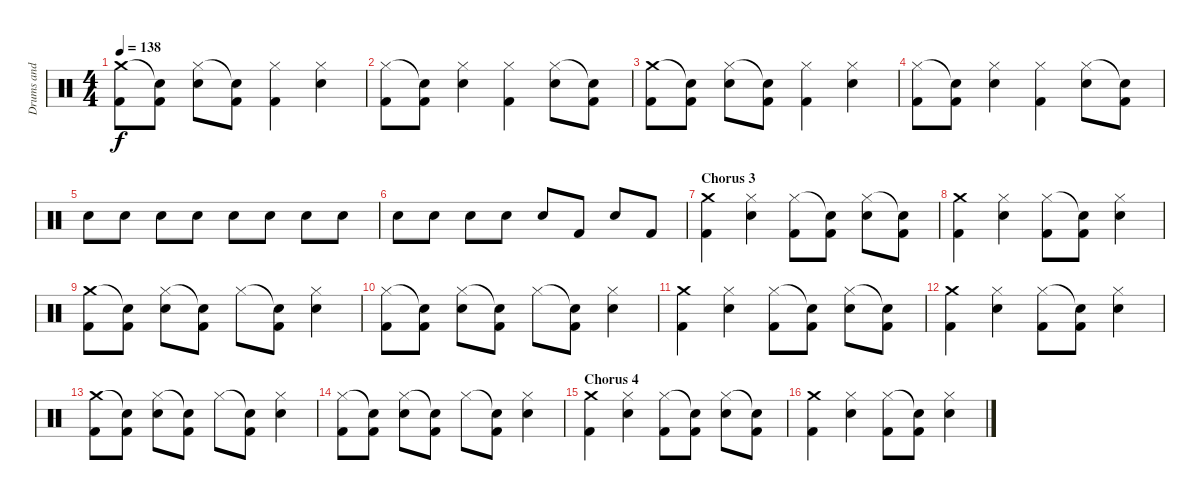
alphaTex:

\track ("Drums and Percussion" "Drums and ") {instrument percussion}
\staff {score}
\articulation defaults
\ts (4 4)
\tempo 138
\clef neutral
\ks c
("Crash medium (hit)" "Kick (hit) 2").8{dy f} ("Snare (hit)"{t} "Kick (hit) 2").8 ("Hi-Hat (closed)" "Electric Snare (hit)").8 ("Snare (hit)"{t} "Kick (hit) 2").8 ("Hi-Hat (closed)" "Kick (hit) 2").4 ("Hi-Hat (closed)" "Electric Snare (hit)").4 |
("Hi-Hat (closed)" "Kick (hit) 2").8 ("Snare (hit)"{t} "Kick (hit) 2").8 ("Hi-Hat (closed)" "Electric Snare (hit)").4 ("Hi-Hat (closed)" "Kick (hit) 2").4 ("Hi-Hat (closed)" "Electric Snare (hit)").8 ("Snare (hit)"{t} "Kick (hit) 2").8 |
("Crash medium (hit)" "Kick (hit) 2").8 ("Snare (hit)"{t} "Kick (hit) 2").8 ("Hi-Hat (closed)" "Electric Snare (hit)").8 ("Snare (hit)"{t} "Kick (hit) 2").8 ("Hi-Hat (closed)" "Kick (hit) 2").4 ("Hi-Hat (closed)" "Electric Snare (hit)").4 |
("Hi-Hat (closed)" "Kick (hit) 2").8 ("Snare (hit)"{t} "Kick (hit) 2").8 ("Hi-Hat (closed)" "Electric Snare (hit)").4 ("Hi-Hat (closed)" "Kick (hit) 2").4 ("Hi-Hat (closed)" "Electric Snare (hit)").8 ("Snare (hit)"{t} "Kick (hit) 2").8 |
"Electric Snare (hit)".8 "Electric Snare (hit)".8 "Electric Snare (hit)".8 "Electric Snare (hit)".8 "Electric Snare (hit)".8 "Electric Snare (hit)".8 "Electric Snare (hit)".8 "Electric Snare (hit)".8 |
"Electric Snare (hit)".8 "Electric Snare (hit)".8 "Electric Snare (hit)".8 "Electric Snare (hit)".8 "Electric Snare (hit)".8 "Kick (hit) 2".8 "Electric Snare (hit)".8 "Kick (hit) 2".8 |
\section ("" "Chorus 3")
("Crash medium (hit)" "Kick (hit) 2").4 ("Hi-Hat (closed)" "Electric Snare (hit)").4 ("Hi-Hat (closed)" "Kick (hit) 2").8 ("Snare (hit)"{t} "Kick (hit) 2").8 ("Hi-Hat (closed)" "Electric Snare (hit)").8 ("Snare (hit)"{t} "Kick (hit) 2").8 |
("Crash medium (hit)" "Kick (hit) 2").4 ("Hi-Hat (closed)" "Electric Snare (hit)").4 ("Hi-Hat (closed)" "Kick (hit) 2").8 ("Snare (hit)"{t} "Kick (hit) 2").8 ("Hi-Hat (closed)" "Electric Snare (hit)").4 |
("Crash medium (hit)" "Kick (hit) 2").8 ("Snare (hit)"{t} "Kick (hit) 2").8 ("Hi-Hat (closed)" "Electric Snare (hit)").8 ("Snare (hit)"{t} "Kick (hit) 2").8 "Hi-Hat (closed)".8 ("Snare (hit)"{t} "Kick (hit) 2").8 ("Hi-Hat (closed)" "Electric Snare (hit)").4 |
("Hi-Hat (closed)" "Kick (hit) 2").8 ("Snare (hit)"{t} "Kick (hit) 2").8 ("Hi-Hat (closed)" "Electric Snare (hit)").8 ("Snare (hit)"{t} "Kick (hit) 2").8 "Hi-Hat (closed)".8 ("Snare (hit)"{t} "Kick (hit) 2").8 ("Hi-Hat (closed)" "Electric Snare (hit)").4 |
("Crash medium (hit)" "Kick (hit) 2").4 ("Hi-Hat (closed)" "Electric Snare (hit)").4 ("Hi-Hat (closed)" "Kick (hit) 2").8 ("Snare (hit)"{t} "Kick (hit) 2").8 ("Hi-Hat (closed)" "Electric Snare (hit)").8 ("Snare (hit)"{t} "Kick (hit) 2").8 |
("Crash medium (hit)" "Kick (hit) 2").4 ("Hi-Hat (closed)" "Electric Snare (hit)").4 ("Hi-Hat (closed)" "Kick (hit) 2").8 ("Snare (hit)"{t} "Kick (hit) 2").8 ("Hi-Hat (closed)" "Electric Snare (hit)").4 |
("Crash medium (hit)" "Kick (hit) 2").8 ("Snare (hit)"{t} "Kick (hit) 2").8 ("Hi-Hat (closed)" "Electric Snare (hit)").8 ("Snare (hit)"{t} "Kick (hit) 2").8 "Hi-Hat (closed)".8 ("Snare (hit)"{t} "Kick (hit) 2").8 ("Hi-Hat (closed)" "Electric Snare (hit)").4 |
("Hi-Hat (closed)" "Kick (hit) 2").8 ("Snare (hit)"{t} "Kick (hit) 2").8 ("Hi-Hat (closed)" "Electric Snare (hit)").8 ("Snare (hit)"{t} "Kick (hit) 2").8 "Hi-Hat (closed)".8 ("Snare (hit)"{t} "Kick (hit) 2").8 ("Hi-Hat (closed)" "Electric Snare (hit)").4 |
\section ("" "Chorus 4")
("Crash medium (hit)" "Kick (hit) 2").4 ("Hi-Hat (closed)" "Electric Snare (hit)").4 ("Hi-Hat (closed)" "Kick (hit) 2").8 ("Snare (hit)"{t} "Kick (hit) 2").8 ("Hi-Hat (closed)" "Electric Snare (hit)").8 ("Snare (hit)"{t} "Kick (hit) 2").8 |
("Crash medium (hit)" "Kick (hit) 2").4 ("Hi-Hat (closed)" "Electric Snare (hit)").4 ("Hi-Hat (closed)" "Kick (hit) 2").8 ("Snare (hit)"{t} "Kick (hit) 2").8 ("Hi-Hat (closed)" "Electric Snare (hit)").4
